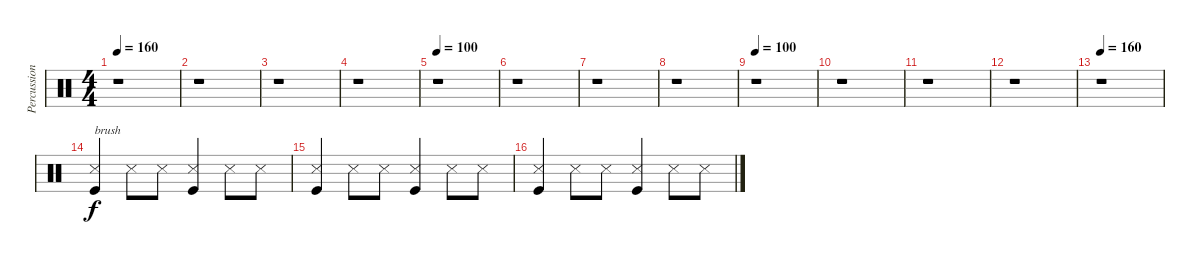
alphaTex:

\track ("Percussion" "Percussion") {instrument percussion}
\staff {score}
\articulation defaults
\ts (4 4)
\tempo 160
\tempo 100
\tempo 160
\clef neutral
\ks c
r.1{dy f} |
r.1 |
r.1 |
r.1 |
\tempo 100
r.1 |
r.1 |
r.1 |
r.1 |
\tempo 100
r.1 |
r.1 |
r.1 |
r.1 |
\tempo 160
r.1 |
("Snare (side stick) 3" "Kick (hit)").4{txt "brush"} "Snare (side stick) 3".8 "Snare (side stick) 3".8 ("Snare (side stick) 3" "Kick (hit)").4 "Snare (side stick) 3".8 "Snare (side stick) 3".8 |
("Snare (side stick) 3" "Kick (hit)").4 "Snare (side stick) 3".8 "Snare (side stick) 3".8 ("Snare (side stick) 3" "Kick (hit)").4 "Snare (side stick) 3".8 "Snare (side stick) 3".8 |
("Snare (side stick) 3" "Kick (hit)").4 "Snare (side stick) 3".8 "Snare (side stick) 3".8 ("Snare (side stick) 3" "Kick (hit)").4 "Snare (side stick) 3".8 "Snare (side stick) 3".8
